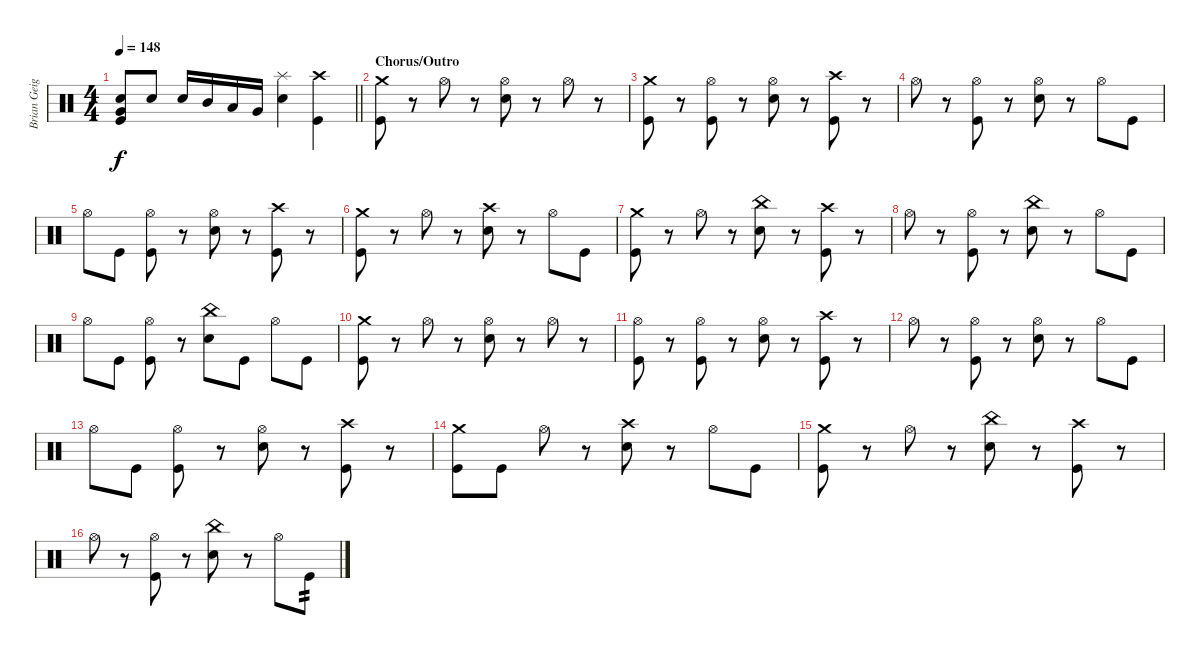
\track ("Brian Geiger" "Brian Geig") {instrument percussion}
\staff {score}
\articulation defaults
\ts (4 4)
\tempo 148
\clef neutral
\barLineRight lightlight
\ks c
("Snare (hit) 2" "Very Low Tom (hit)" "Kick (hit)").8{dy f} "Snare (hit) 2".8 "Snare (hit) 2".16 "Mid Tom (hit)".16 "Low Tom (hit)".16 "Very Low Tom (hit)".16 ("Splash (hit)" "Snare (hit) 2").4 ("Crash high (hit)" "Kick (hit)").4 |
\section ("" "Chorus/Outro")
("Crash medium (hit)" "Kick (hit)").8 r.8 "Hi-Hat (open)".8 r.8 ("Hi-Hat (open)" "Snare (hit) 2").8 r.8 "Hi-Hat (open)".8 r.8 |
("Crash medium (hit)" "Kick (hit)").8 r.8 ("Hi-Hat (open)" "Kick (hit)").8 r.8 ("Hi-Hat (open)" "Snare (hit) 2").8 r.8 ("Crash high (hit)" "Kick (hit)").8 r.8 |
"Hi-Hat (open)".8 r.8 ("Hi-Hat (open)" "Kick (hit)").8 r.8 ("Hi-Hat (open)" "Snare (hit) 2").8 r.8 "Hi-Hat (open)".8 "Kick (hit)".8 |
"Hi-Hat (open)".8 "Kick (hit)".8 ("Hi-Hat (open)" "Kick (hit)").8 r.8 ("Hi-Hat (open)" "Snare (hit) 2").8 r.8 ("Crash high (hit)" "Kick (hit)").8 r.8 |
("Crash medium (hit)" "Kick (hit)").8 r.8 "Hi-Hat (open)".8 r.8 ("Crash high (hit)" "Snare (hit) 2").8 r.8 "Hi-Hat (open)".8 "Kick (hit)".8 |
("Crash medium (hit)" "Kick (hit)").8 r.8 "Hi-Hat (open)".8 r.8 ("China (hit)" "Snare (hit) 2").8 r.8 ("Crash high (hit)" "Kick (hit)").8 r.8 |
"Hi-Hat (open)".8 r.8 ("Hi-Hat (open)" "Kick (hit)").8 r.8 ("China (hit)" "Snare (hit) 2").8 r.8 "Hi-Hat (open)".8 "Kick (hit)".8 |
"Hi-Hat (open)".8 "Kick (hit)".8 ("Hi-Hat (open)" "Kick (hit)").8 r.8 ("China (hit)" "Snare (hit) 2").8 "Kick (hit)".8 "Hi-Hat (open)".8 "Kick (hit)".8 |
("Crash medium (hit)" "Kick (hit)").8 r.8 "Hi-Hat (open)".8 r.8 ("Hi-Hat (open)" "Snare (hit) 2").8 r.8 "Hi-Hat (open)".8 r.8 |
("Hi-Hat (open)" "Kick (hit)").8 r.8 ("Hi-Hat (open)" "Kick (hit)").8 r.8 ("Hi-Hat (open)" "Snare (hit) 2").8 r.8 ("Crash high (hit)" "Kick (hit)").8 r.8 |
"Hi-Hat (open)".8 r.8 ("Hi-Hat (open)" "Kick (hit)").8 r.8 ("Hi-Hat (open)" "Snare (hit) 2").8 r.8 "Hi-Hat (open)".8 "Kick (hit)".8 |
"Hi-Hat (open)".8 "Kick (hit)".8 ("Hi-Hat (open)" "Kick (hit)").8 r.8 ("Hi-Hat (open)" "Snare (hit) 2").8 r.8 ("Crash high (hit)" "Kick (hit)").8 r.8 |
("Crash medium (hit)" "Kick (hit)").8 "Kick (hit)".8 "Hi-Hat (open)".8 r.8 ("Crash high (hit)" "Snare (hit) 2").8 r.8 "Hi-Hat (open)".8 "Kick (hit)".8 |
("Crash medium (hit)" "Kick (hit)").8 r.8 "Hi-Hat (open)".8 r.8 ("China (hit)" "Snare (hit) 2").8 r.8 ("Crash high (hit)" "Kick (hit)").8 r.8 |
"Hi-Hat (open)".8 r.8 ("Hi-Hat (open)" "Kick (hit)").8 r.8 ("China (hit)" "Snare (hit) 2").8 r.8 "Hi-Hat (open)".8 "Kick (hit)".8{tp 2}
